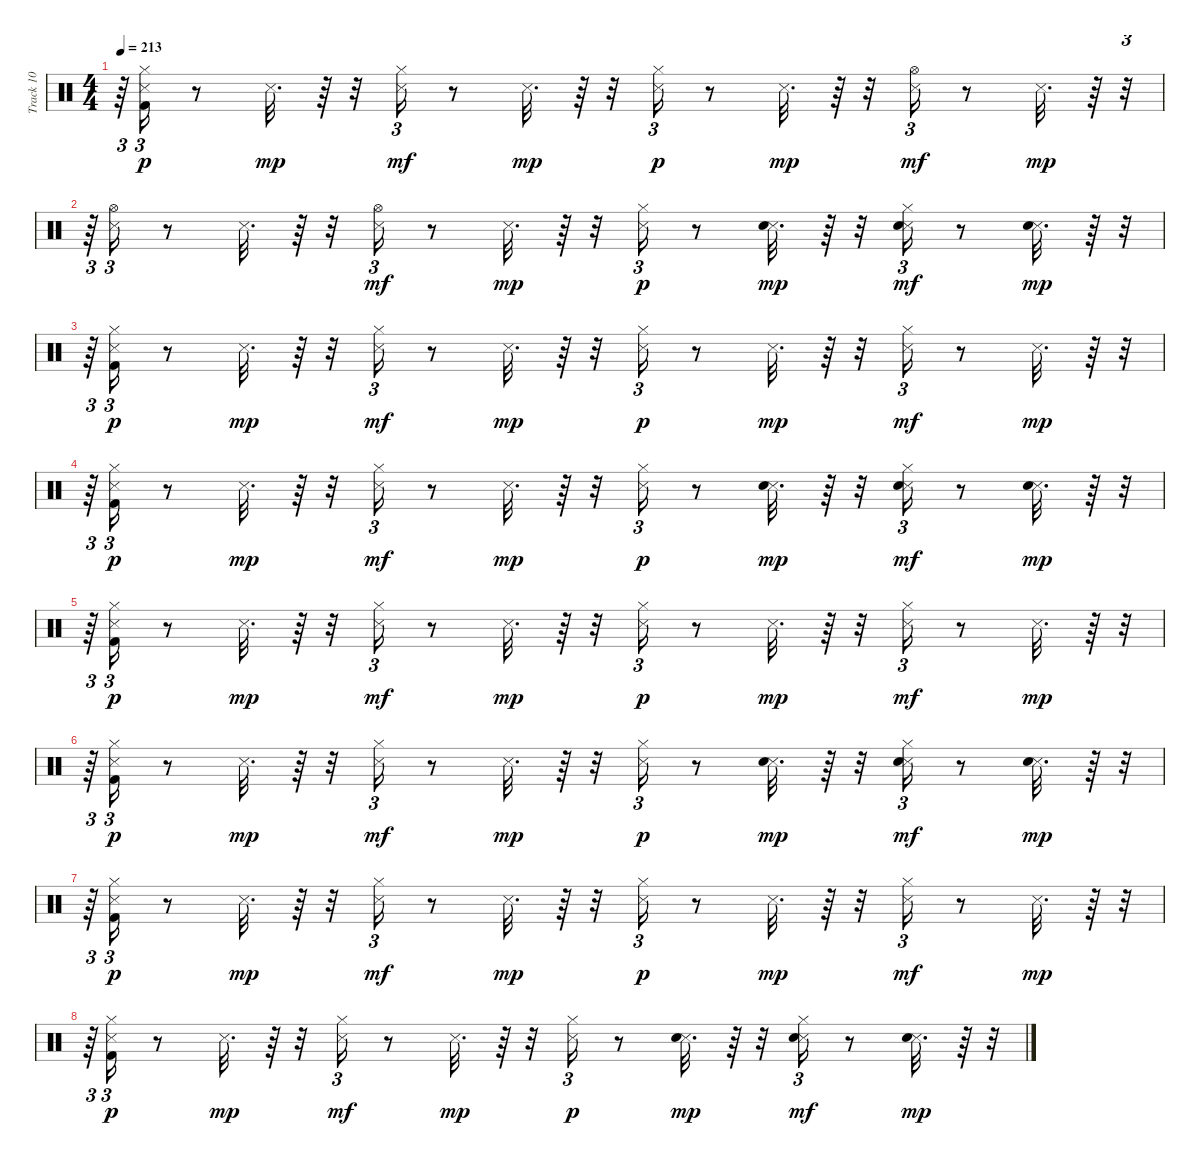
\track ("Track 10" "Track 10") {instrument percussion}
\staff {score}
\articulation defaults
\ts (4 4)
\tempo 213
\clef neutral
\ks c
r.64{tu (3 2) dy mp} ("Kick (hit) 2" "Snare (side stick) 3" "Hi-Hat (closed)").16{tu (3 2) dy p} r.8 "Snare (side stick) 3".32{d dy mp} r.64 r.32 ("Snare (side stick) 3" "Hi-Hat (closed)").16{tu (3 2) dy mf} r.8 "Snare (side stick) 3".32{d dy mp} r.64 r.32 ("Snare (side stick) 3" "Hi-Hat (closed)").16{tu (3 2) dy p} r.8 "Snare (side stick) 3".32{d dy mp} r.64 r.32 ("Snare (side stick) 3" "Hi-Hat (open)").16{tu (3 2) dy mf} r.8 "Snare (side stick) 3".32{d dy mp} r.64 r.32{tu (3 2)} |
r.64{tu (3 2)} ("Snare (side stick) 3" "Hi-Hat (open)").16{tu (3 2)} r.8 "Snare (side stick) 3".32{d} r.64 r.32 ("Snare (side stick) 3" "Hi-Hat (open)").16{tu (3 2) dy mf} r.8 "Snare (side stick) 3".32{d dy mp} r.64 r.32 ("Snare (side stick) 3" "Hi-Hat (closed)").16{tu (3 2) dy p} r.8 ("Snare (side stick) 3" "Electric Snare (hit)").32{d dy mp} r.64 r.32 ("Snare (side stick) 3" "Electric Snare (hit)" "Hi-Hat (closed)").16{tu (3 2) dy mf} r.8 ("Snare (side stick) 3" "Electric Snare (hit)").32{d dy mp} r.64 r.32{tu (3 2)} |
r.64{tu (3 2)} ("Kick (hit) 2" "Snare (side stick) 3" "Hi-Hat (closed)").16{tu (3 2) dy p} r.8 "Snare (side stick) 3".32{d dy mp} r.64 r.32 ("Snare (side stick) 3" "Hi-Hat (closed)").16{tu (3 2) dy mf} r.8 "Snare (side stick) 3".32{d dy mp} r.64 r.32 ("Snare (side stick) 3" "Hi-Hat (closed)").16{tu (3 2) dy p} r.8 "Snare (side stick) 3".32{d dy mp} r.64 r.32 ("Snare (side stick) 3" "Hi-Hat (closed)").16{tu (3 2) dy mf} r.8 "Snare (side stick) 3".32{d dy mp} r.64 r.32{tu (3 2)} |
r.64{tu (3 2)} ("Kick (hit) 2" "Snare (side stick) 3" "Hi-Hat (closed)").16{tu (3 2) dy p} r.8 "Snare (side stick) 3".32{d dy mp} r.64 r.32 ("Snare (side stick) 3" "Hi-Hat (closed)").16{tu (3 2) dy mf} r.8 "Snare (side stick) 3".32{d dy mp} r.64 r.32 ("Snare (side stick) 3" "Hi-Hat (closed)").16{tu (3 2) dy p} r.8 ("Snare (side stick) 3" "Electric Snare (hit)").32{d dy mp} r.64 r.32 ("Snare (side stick) 3" "Electric Snare (hit)" "Hi-Hat (closed)").16{tu (3 2) dy mf} r.8 ("Snare (side stick) 3" "Electric Snare (hit)").32{d dy mp} r.64 r.32{tu (3 2)} |
r.64{tu (3 2)} ("Kick (hit) 2" "Snare (side stick) 3" "Hi-Hat (closed)").16{tu (3 2) dy p} r.8 "Snare (side stick) 3".32{d dy mp} r.64 r.32 ("Snare (side stick) 3" "Hi-Hat (closed)").16{tu (3 2) dy mf} r.8 "Snare (side stick) 3".32{d dy mp} r.64 r.32 ("Snare (side stick) 3" "Hi-Hat (closed)").16{tu (3 2) dy p} r.8 "Snare (side stick) 3".32{d dy mp} r.64 r.32 ("Snare (side stick) 3" "Hi-Hat (closed)").16{tu (3 2) dy mf} r.8 "Snare (side stick) 3".32{d dy mp} r.64 r.32{tu (3 2)} |
r.64{tu (3 2)} ("Kick (hit) 2" "Snare (side stick) 3" "Hi-Hat (closed)").16{tu (3 2) dy p} r.8 "Snare (side stick) 3".32{d dy mp} r.64 r.32 ("Snare (side stick) 3" "Hi-Hat (closed)").16{tu (3 2) dy mf} r.8 "Snare (side stick) 3".32{d dy mp} r.64 r.32 ("Snare (side stick) 3" "Hi-Hat (closed)").16{tu (3 2) dy p} r.8 ("Snare (side stick) 3" "Electric Snare (hit)").32{d dy mp} r.64 r.32 ("Snare (side stick) 3" "Electric Snare (hit)" "Hi-Hat (closed)").16{tu (3 2) dy mf} r.8 ("Snare (side stick) 3" "Electric Snare (hit)").32{d dy mp} r.64 r.32{tu (3 2)} |
r.64{tu (3 2)} ("Kick (hit) 2" "Snare (side stick) 3" "Hi-Hat (closed)").16{tu (3 2) dy p} r.8 "Snare (side stick) 3".32{d dy mp} r.64 r.32 ("Snare (side stick) 3" "Hi-Hat (closed)").16{tu (3 2) dy mf} r.8 "Snare (side stick) 3".32{d dy mp} r.64 r.32 ("Snare (side stick) 3" "Hi-Hat (closed)").16{tu (3 2) dy p} r.8 "Snare (side stick) 3".32{d dy mp} r.64 r.32 ("Snare (side stick) 3" "Hi-Hat (closed)").16{tu (3 2) dy mf} r.8 "Snare (side stick) 3".32{d dy mp} r.64 r.32{tu (3 2)} |
r.64{tu (3 2)} ("Kick (hit) 2" "Snare (side stick) 3" "Hi-Hat (closed)").16{tu (3 2) dy p} r.8 "Snare (side stick) 3".32{d dy mp} r.64 r.32 ("Snare (side stick) 3" "Hi-Hat (closed)").16{tu (3 2) dy mf} r.8 "Snare (side stick) 3".32{d dy mp} r.64 r.32 ("Snare (side stick) 3" "Hi-Hat (closed)").16{tu (3 2) dy p} r.8 ("Snare (side stick) 3" "Electric Snare (hit)").32{d dy mp} r.64 r.32 ("Snare (side stick) 3" "Electric Snare (hit)" "Hi-Hat (closed)").16{tu (3 2) dy mf} r.8 ("Snare (side stick) 3" "Electric Snare (hit)").32{d dy mp} r.64 r.32{tu (3 2)}
